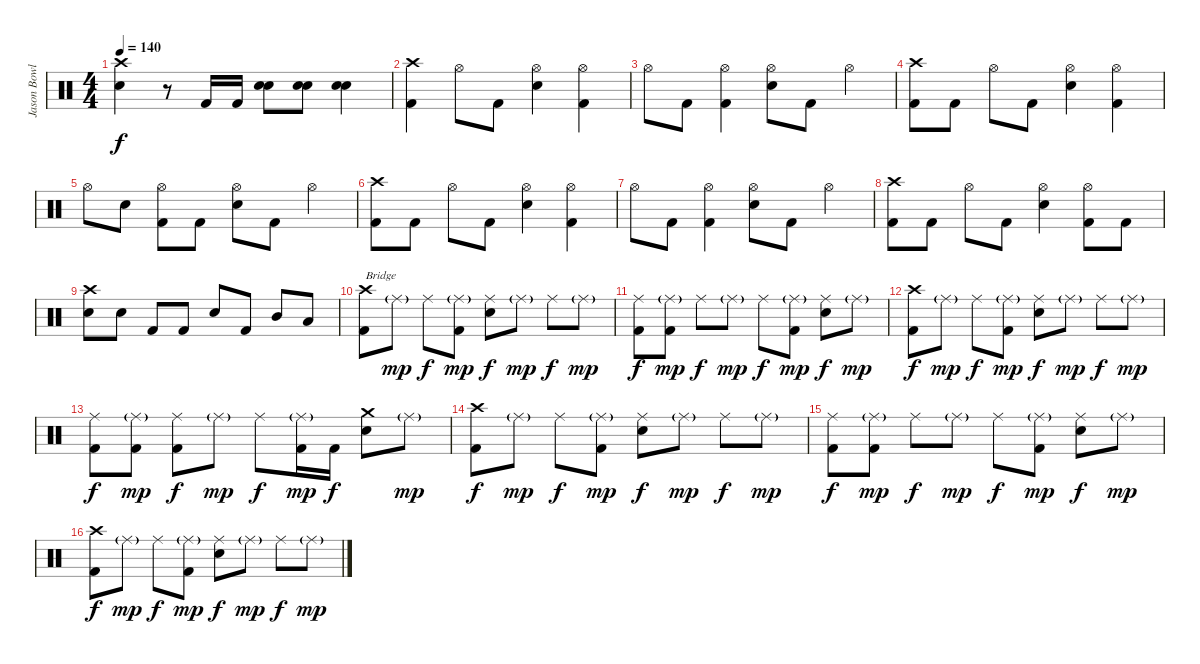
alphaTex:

\track ("Jason Bowld" "Jason Bowl") {instrument percussion}
\staff {score}
\articulation defaults
\ts (4 4)
\tempo 140
\clef neutral
\ks c
("Crash high (hit)" "Snare (hit) 2").4{dy f} r.8 "Kick (hit) 2".16 "Kick (hit) 2".16 ("Snare (hit) 2" "Snare (hit) 2").8 ("Snare (hit) 2" "Snare (hit) 2").8 ("Snare (hit) 2" "Snare (hit) 2").4 |
("Crash high (hit)" "Kick (hit) 2").4 "Hi-Hat (open)".8 "Kick (hit) 2".8 ("Hi-Hat (open)" "Snare (hit) 2").4 ("Hi-Hat (open)" "Kick (hit) 2").4 |
"Hi-Hat (open)".8 "Kick (hit) 2".8 ("Hi-Hat (open)" "Kick (hit) 2").4 ("Hi-Hat (open)" "Snare (hit) 2").8 "Kick (hit) 2".8 "Hi-Hat (open)".4 |
("Crash high (hit)" "Kick (hit) 2").8 "Kick (hit) 2".8 "Hi-Hat (open)".8 "Kick (hit) 2".8 ("Hi-Hat (open)" "Snare (hit) 2").4 ("Hi-Hat (open)" "Kick (hit) 2").4 |
"Hi-Hat (open)".8 "Snare (hit) 2".8 ("Hi-Hat (open)" "Kick (hit) 2").8 "Kick (hit) 2".8 ("Hi-Hat (open)" "Snare (hit) 2").8 "Kick (hit) 2".8 "Hi-Hat (open)".4 |
("Crash high (hit)" "Kick (hit) 2").8 "Kick (hit) 2".8 "Hi-Hat (open)".8 "Kick (hit) 2".8 ("Hi-Hat (open)" "Snare (hit) 2").4 ("Hi-Hat (open)" "Kick (hit) 2").4 |
"Hi-Hat (open)".8 "Kick (hit) 2".8 ("Hi-Hat (open)" "Kick (hit) 2").4 ("Hi-Hat (open)" "Snare (hit) 2").8 "Kick (hit) 2".8 "Hi-Hat (open)".4 |
("Crash high (hit)" "Kick (hit) 2").8 "Kick (hit) 2".8 "Hi-Hat (open)".8 "Kick (hit) 2".8 ("Hi-Hat (open)" "Snare (hit) 2").4 ("Hi-Hat (open)" "Kick (hit) 2").8 "Kick (hit) 2".8 |
("Crash high (hit)" "Snare (hit) 2").8 "Snare (hit) 2".8 "Kick (hit) 2".8 "Kick (hit) 2".8 "Snare (hit) 2".8 "Kick (hit) 2".8 "Mid Tom (hit)".8 "Low Tom (hit)".8 |
("Crash high (hit)" "Kick (hit) 2").8{txt "Bridge"} "Ride (middle)"{g}.8{dy mp} "Ride (middle)".8{dy f} ("Ride (middle)"{g} "Kick (hit) 2").8{dy mp} ("Ride (middle)" "Snare (hit) 2").8{dy f} "Ride (middle)"{g}.8{dy mp} "Ride (middle)".8{dy f} "Ride (middle)"{g}.8{dy mp} |
("Ride (middle)" "Kick (hit) 2").8{dy f} ("Ride (middle)"{g} "Kick (hit) 2").8{dy mp} "Ride (middle)".8{dy f} "Ride (middle)"{g}.8{dy mp} "Ride (middle)".8{dy f} ("Ride (middle)"{g} "Kick (hit) 2").8{dy mp} ("Ride (middle)" "Snare (hit) 2").8{dy f} "Ride (middle)"{g}.8{dy mp} |
("Crash high (hit)" "Kick (hit) 2").8{dy f} "Ride (middle)"{g}.8{dy mp} "Ride (middle)".8{dy f} ("Ride (middle)"{g} "Kick (hit) 2").8{dy mp} ("Ride (middle)" "Snare (hit) 2").8{dy f} "Ride (middle)"{g}.8{dy mp} "Ride (middle)".8{dy f} "Ride (middle)"{g}.8{dy mp} |
("Ride (middle)" "Kick (hit) 2").8{dy f} ("Ride (middle)"{g} "Kick (hit) 2").8{dy mp} ("Ride (middle)" "Kick (hit) 2").8{dy f} "Ride (middle)"{g}.8{dy mp} "Ride (middle)".8{dy f} ("Ride (middle)"{g} "Kick (hit) 2").16{dy mp} "Kick (hit) 2".16{dy f} ("Crash medium (hit)" "Snare (hit) 2").8 "Ride (middle)"{g}.8{dy mp} |
("Crash high (hit)" "Kick (hit) 2").8{dy f} "Ride (middle)"{g}.8{dy mp} "Ride (middle)".8{dy f} ("Ride (middle)"{g} "Kick (hit) 2").8{dy mp} ("Ride (middle)" "Snare (hit) 2").8{dy f} "Ride (middle)"{g}.8{dy mp} "Ride (middle)".8{dy f} "Ride (middle)"{g}.8{dy mp} |
("Ride (middle)" "Kick (hit) 2").8{dy f} ("Ride (middle)"{g} "Kick (hit) 2").8{dy mp} "Ride (middle)".8{dy f} "Ride (middle)"{g}.8{dy mp} "Ride (middle)".8{dy f} ("Ride (middle)"{g} "Kick (hit) 2").8{dy mp} ("Ride (middle)" "Snare (hit) 2").8{dy f} "Ride (middle)"{g}.8{dy mp} |
("Crash high (hit)" "Kick (hit) 2").8{dy f} "Ride (middle)"{g}.8{dy mp} "Ride (middle)".8{dy f} ("Ride (middle)"{g} "Kick (hit) 2").8{dy mp} ("Ride (middle)" "Snare (hit) 2").8{dy f} "Ride (middle)"{g}.8{dy mp} "Ride (middle)".8{dy f} "Ride (middle)"{g}.8{dy mp}
